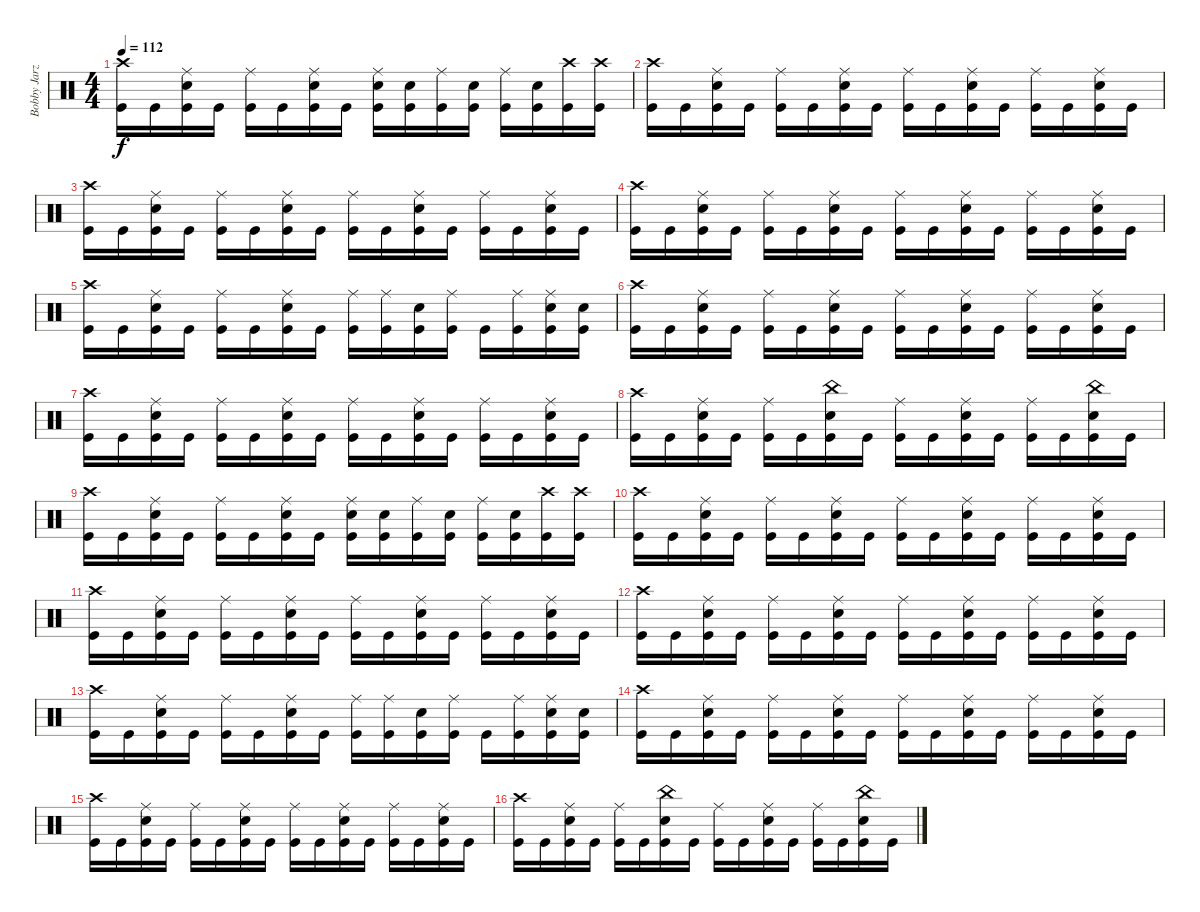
\track ("Bobby Jarzombek" "Bobby Jarz") {instrument percussion}
\staff {score}
\articulation defaults
\ts (4 4)
\tempo 112
\clef neutral
\ks c
("Crash high (hit)" "Kick (hit)").16{dy f} "Kick (hit)".16 ("Ride (middle)" "Electric Snare (hit)" "Kick (hit)").16 "Kick (hit)".16 ("Ride (middle)" "Kick (hit)").16 "Kick (hit)".16 ("Ride (middle)" "Electric Snare (hit)" "Kick (hit)").16 "Kick (hit)".16 ("Ride (middle)" "Electric Snare (hit)" "Kick (hit)").16 ("Electric Snare (hit)" "Kick (hit)").16 ("Ride (middle)" "Kick (hit)").16 ("Electric Snare (hit)" "Kick (hit)").16 ("Ride (middle)" "Kick (hit)").16 ("Electric Snare (hit)" "Kick (hit)").16 ("Crash high (hit)" "Kick (hit)").16 ("Crash high (hit)" "Kick (hit)").16 |
("Crash high (hit)" "Kick (hit)").16 "Kick (hit)".16 ("Ride (middle)" "Electric Snare (hit)" "Kick (hit)").16 "Kick (hit)".16 ("Ride (middle)" "Kick (hit)").16 "Kick (hit)".16 ("Ride (middle)" "Electric Snare (hit)" "Kick (hit)").16 "Kick (hit)".16 ("Ride (middle)" "Kick (hit)").16 "Kick (hit)".16 ("Ride (middle)" "Electric Snare (hit)" "Kick (hit)").16 "Kick (hit)".16 ("Ride (middle)" "Kick (hit)").16 "Kick (hit)".16 ("Ride (middle)" "Electric Snare (hit)" "Kick (hit)").16 "Kick (hit)".16 |
("Crash high (hit)" "Kick (hit)").16 "Kick (hit)".16 ("Ride (middle)" "Electric Snare (hit)" "Kick (hit)").16 "Kick (hit)".16 ("Ride (middle)" "Kick (hit)").16 "Kick (hit)".16 ("Ride (middle)" "Electric Snare (hit)" "Kick (hit)").16 "Kick (hit)".16 ("Ride (middle)" "Kick (hit)").16 "Kick (hit)".16 ("Ride (middle)" "Electric Snare (hit)" "Kick (hit)").16 "Kick (hit)".16 ("Ride (middle)" "Kick (hit)").16 "Kick (hit)".16 ("Ride (middle)" "Electric Snare (hit)" "Kick (hit)").16 "Kick (hit)".16 |
("Crash high (hit)" "Kick (hit)").16 "Kick (hit)".16 ("Ride (middle)" "Electric Snare (hit)" "Kick (hit)").16 "Kick (hit)".16 ("Ride (middle)" "Kick (hit)").16 "Kick (hit)".16 ("Ride (middle)" "Electric Snare (hit)" "Kick (hit)").16 "Kick (hit)".16 ("Ride (middle)" "Kick (hit)").16 "Kick (hit)".16 ("Ride (middle)" "Electric Snare (hit)" "Kick (hit)").16 "Kick (hit)".16 ("Ride (middle)" "Kick (hit)").16 "Kick (hit)".16 ("Ride (middle)" "Electric Snare (hit)" "Kick (hit)").16 "Kick (hit)".16 |
("Crash high (hit)" "Kick (hit)").16 "Kick (hit)".16 ("Ride (middle)" "Electric Snare (hit)" "Kick (hit)").16 "Kick (hit)".16 ("Ride (middle)" "Kick (hit)").16 "Kick (hit)".16 ("Ride (middle)" "Electric Snare (hit)" "Kick (hit)").16 "Kick (hit)".16 ("Ride (middle)" "Kick (hit)").16 ("Ride (middle)" "Kick (hit)").16 ("Electric Snare (hit)" "Kick (hit)").16 ("Ride (middle)" "Kick (hit)").16 "Kick (hit)".16 ("Ride (middle)" "Kick (hit)").16 ("Ride (middle)" "Electric Snare (hit)" "Kick (hit)").16 ("Electric Snare (hit)" "Kick (hit)").16 |
("Crash high (hit)" "Kick (hit)").16 "Kick (hit)".16 ("Ride (middle)" "Electric Snare (hit)" "Kick (hit)").16 "Kick (hit)".16 ("Ride (middle)" "Kick (hit)").16 "Kick (hit)".16 ("Ride (middle)" "Electric Snare (hit)" "Kick (hit)").16 "Kick (hit)".16 ("Ride (middle)" "Kick (hit)").16 "Kick (hit)".16 ("Ride (middle)" "Electric Snare (hit)" "Kick (hit)").16 "Kick (hit)".16 ("Ride (middle)" "Kick (hit)").16 "Kick (hit)".16 ("Ride (middle)" "Electric Snare (hit)" "Kick (hit)").16 "Kick (hit)".16 |
("Crash high (hit)" "Kick (hit)").16 "Kick (hit)".16 ("Ride (middle)" "Electric Snare (hit)" "Kick (hit)").16 "Kick (hit)".16 ("Ride (middle)" "Kick (hit)").16 "Kick (hit)".16 ("Ride (middle)" "Electric Snare (hit)" "Kick (hit)").16 "Kick (hit)".16 ("Ride (middle)" "Kick (hit)").16 "Kick (hit)".16 ("Ride (middle)" "Electric Snare (hit)" "Kick (hit)").16 "Kick (hit)".16 ("Ride (middle)" "Kick (hit)").16 "Kick (hit)".16 ("Ride (middle)" "Electric Snare (hit)" "Kick (hit)").16 "Kick (hit)".16 |
("Crash high (hit)" "Kick (hit)").16 "Kick (hit)".16 ("Ride (middle)" "Electric Snare (hit)" "Kick (hit)").16 "Kick (hit)".16 ("Ride (middle)" "Kick (hit)").16 "Kick (hit)".16 ("China (hit)" "Electric Snare (hit)" "Kick (hit)").16 "Kick (hit)".16 ("Ride (middle)" "Kick (hit)").16 "Kick (hit)".16 ("Ride (middle)" "Electric Snare (hit)" "Kick (hit)").16 "Kick (hit)".16 ("Ride (middle)" "Kick (hit)").16 "Kick (hit)".16 ("China (hit)" "Electric Snare (hit)" "Kick (hit)").16 "Kick (hit)".16 |
("Crash high (hit)" "Kick (hit)").16 "Kick (hit)".16 ("Ride (middle)" "Electric Snare (hit)" "Kick (hit)").16 "Kick (hit)".16 ("Ride (middle)" "Kick (hit)").16 "Kick (hit)".16 ("Ride (middle)" "Electric Snare (hit)" "Kick (hit)").16 "Kick (hit)".16 ("Ride (middle)" "Electric Snare (hit)" "Kick (hit)").16 ("Electric Snare (hit)" "Kick (hit)").16 ("Ride (middle)" "Kick (hit)").16 ("Electric Snare (hit)" "Kick (hit)").16 ("Ride (middle)" "Kick (hit)").16 ("Electric Snare (hit)" "Kick (hit)").16 ("Crash high (hit)" "Kick (hit)").16 ("Crash high (hit)" "Kick (hit)").16 |
("Crash high (hit)" "Kick (hit)").16 "Kick (hit)".16 ("Ride (middle)" "Electric Snare (hit)" "Kick (hit)").16 "Kick (hit)".16 ("Ride (middle)" "Kick (hit)").16 "Kick (hit)".16 ("Ride (middle)" "Electric Snare (hit)" "Kick (hit)").16 "Kick (hit)".16 ("Ride (middle)" "Kick (hit)").16 "Kick (hit)".16 ("Ride (middle)" "Electric Snare (hit)" "Kick (hit)").16 "Kick (hit)".16 ("Ride (middle)" "Kick (hit)").16 "Kick (hit)".16 ("Ride (middle)" "Electric Snare (hit)" "Kick (hit)").16 "Kick (hit)".16 |
("Crash high (hit)" "Kick (hit)").16 "Kick (hit)".16 ("Ride (middle)" "Electric Snare (hit)" "Kick (hit)").16 "Kick (hit)".16 ("Ride (middle)" "Kick (hit)").16 "Kick (hit)".16 ("Ride (middle)" "Electric Snare (hit)" "Kick (hit)").16 "Kick (hit)".16 ("Ride (middle)" "Kick (hit)").16 "Kick (hit)".16 ("Ride (middle)" "Electric Snare (hit)" "Kick (hit)").16 "Kick (hit)".16 ("Ride (middle)" "Kick (hit)").16 "Kick (hit)".16 ("Ride (middle)" "Electric Snare (hit)" "Kick (hit)").16 "Kick (hit)".16 |
("Crash high (hit)" "Kick (hit)").16 "Kick (hit)".16 ("Ride (middle)" "Electric Snare (hit)" "Kick (hit)").16 "Kick (hit)".16 ("Ride (middle)" "Kick (hit)").16 "Kick (hit)".16 ("Ride (middle)" "Electric Snare (hit)" "Kick (hit)").16 "Kick (hit)".16 ("Ride (middle)" "Kick (hit)").16 "Kick (hit)".16 ("Ride (middle)" "Electric Snare (hit)" "Kick (hit)").16 "Kick (hit)".16 ("Ride (middle)" "Kick (hit)").16 "Kick (hit)".16 ("Ride (middle)" "Electric Snare (hit)" "Kick (hit)").16 "Kick (hit)".16 |
("Crash high (hit)" "Kick (hit)").16 "Kick (hit)".16 ("Ride (middle)" "Electric Snare (hit)" "Kick (hit)").16 "Kick (hit)".16 ("Ride (middle)" "Kick (hit)").16 "Kick (hit)".16 ("Ride (middle)" "Electric Snare (hit)" "Kick (hit)").16 "Kick (hit)".16 ("Ride (middle)" "Kick (hit)").16 ("Ride (middle)" "Kick (hit)").16 ("Electric Snare (hit)" "Kick (hit)").16 ("Ride (middle)" "Kick (hit)").16 "Kick (hit)".16 ("Ride (middle)" "Kick (hit)").16 ("Ride (middle)" "Electric Snare (hit)" "Kick (hit)").16 ("Electric Snare (hit)" "Kick (hit)").16 |
("Crash high (hit)" "Kick (hit)").16 "Kick (hit)".16 ("Ride (middle)" "Electric Snare (hit)" "Kick (hit)").16 "Kick (hit)".16 ("Ride (middle)" "Kick (hit)").16 "Kick (hit)".16 ("Ride (middle)" "Electric Snare (hit)" "Kick (hit)").16 "Kick (hit)".16 ("Ride (middle)" "Kick (hit)").16 "Kick (hit)".16 ("Ride (middle)" "Electric Snare (hit)" "Kick (hit)").16 "Kick (hit)".16 ("Ride (middle)" "Kick (hit)").16 "Kick (hit)".16 ("Ride (middle)" "Electric Snare (hit)" "Kick (hit)").16 "Kick (hit)".16 |
("Crash high (hit)" "Kick (hit)").16 "Kick (hit)".16 ("Ride (middle)" "Electric Snare (hit)" "Kick (hit)").16 "Kick (hit)".16 ("Ride (middle)" "Kick (hit)").16 "Kick (hit)".16 ("Ride (middle)" "Electric Snare (hit)" "Kick (hit)").16 "Kick (hit)".16 ("Ride (middle)" "Kick (hit)").16 "Kick (hit)".16 ("Ride (middle)" "Electric Snare (hit)" "Kick (hit)").16 "Kick (hit)".16 ("Ride (middle)" "Kick (hit)").16 "Kick (hit)".16 ("Ride (middle)" "Electric Snare (hit)" "Kick (hit)").16 "Kick (hit)".16 |
("Crash high (hit)" "Kick (hit)").16 "Kick (hit)".16 ("Ride (middle)" "Electric Snare (hit)" "Kick (hit)").16 "Kick (hit)".16 ("Ride (middle)" "Kick (hit)").16 "Kick (hit)".16 ("China (hit)" "Electric Snare (hit)" "Kick (hit)").16 "Kick (hit)".16 ("Ride (middle)" "Kick (hit)").16 "Kick (hit)".16 ("Ride (middle)" "Electric Snare (hit)" "Kick (hit)").16 "Kick (hit)".16 ("Ride (middle)" "Kick (hit)").16 "Kick (hit)".16 ("China (hit)" "Electric Snare (hit)" "Kick (hit)").16 "Kick (hit)".16
